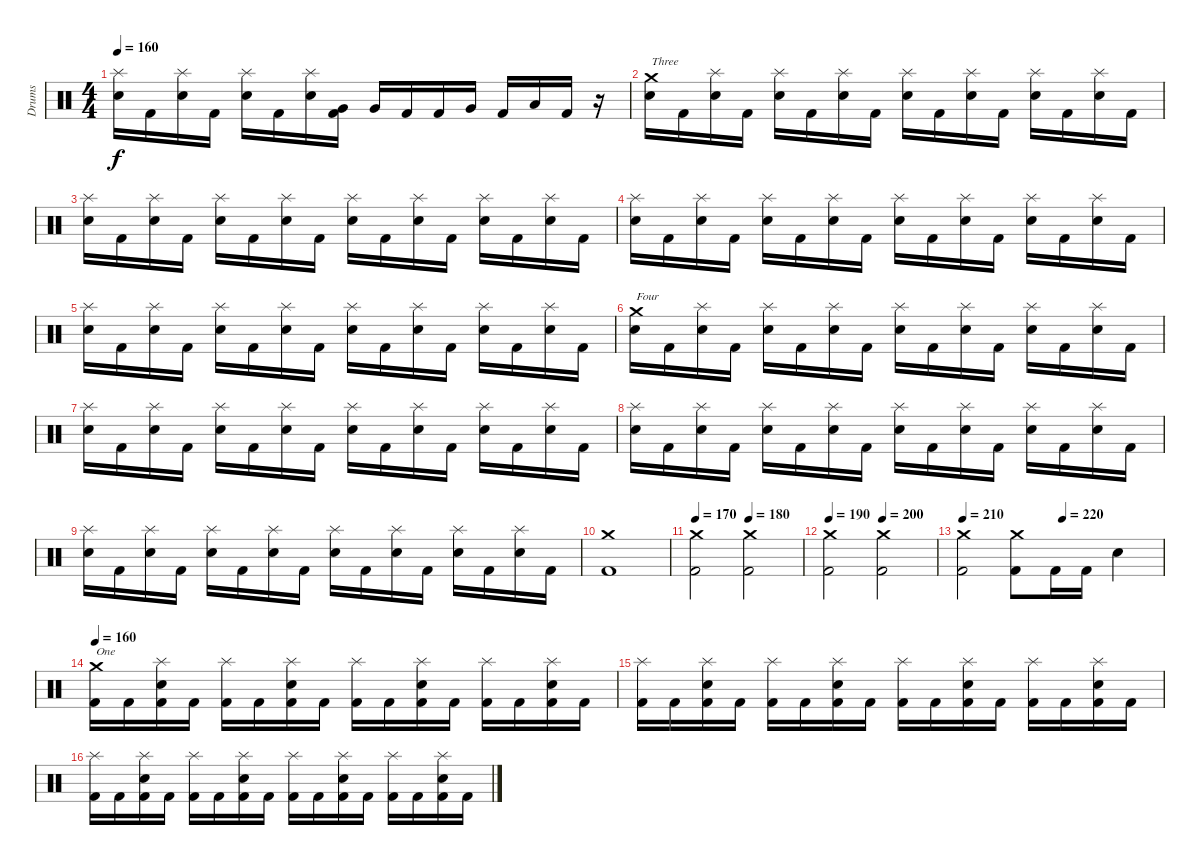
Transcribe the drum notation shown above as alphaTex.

\track ("Drums" "Drums") {instrument percussion}
\staff {score}
\articulation defaults
\ts (4 4)
\tempo 160
\clef neutral
\ks c
("Splash (hit)" "Snare (hit) 2").16{dy f} "Kick (hit) 2".16 ("Splash (hit)" "Snare (hit) 2").16 "Kick (hit) 2".16 ("Splash (hit)" "Snare (hit) 2").16 "Kick (hit) 2".16 ("Splash (hit)" "Snare (hit) 2").16 ("Very Low Tom (hit)" "Kick (hit) 2").16 "Very Low Tom (hit)".16 "Kick (hit) 2".16 "Kick (hit) 2".16 "Very Low Tom (hit)".16 "Kick (hit) 2".16 "Low Floor Tom (hit)".16 "Kick (hit) 2".16 r.16 |
("Crash medium (hit)" "Snare (hit) 2").16{txt "Three"} "Kick (hit) 2".16 ("Splash (hit)" "Snare (hit) 2").16 "Kick (hit) 2".16 ("Splash (hit)" "Snare (hit) 2").16 "Kick (hit) 2".16 ("Splash (hit)" "Snare (hit) 2").16 "Kick (hit) 2".16 ("Splash (hit)" "Snare (hit) 2").16 "Kick (hit) 2".16 ("Splash (hit)" "Snare (hit) 2").16 "Kick (hit) 2".16 ("Splash (hit)" "Snare (hit) 2").16 "Kick (hit) 2".16 ("Splash (hit)" "Snare (hit) 2").16 "Kick (hit) 2".16 |
("Splash (hit)" "Snare (hit) 2").16 "Kick (hit) 2".16 ("Splash (hit)" "Snare (hit) 2").16 "Kick (hit) 2".16 ("Splash (hit)" "Snare (hit) 2").16 "Kick (hit) 2".16 ("Splash (hit)" "Snare (hit) 2").16 "Kick (hit) 2".16 ("Splash (hit)" "Snare (hit) 2").16 "Kick (hit) 2".16 ("Splash (hit)" "Snare (hit) 2").16 "Kick (hit) 2".16 ("Splash (hit)" "Snare (hit) 2").16 "Kick (hit) 2".16 ("Splash (hit)" "Snare (hit) 2").16 "Kick (hit) 2".16 |
("Splash (hit)" "Snare (hit) 2").16 "Kick (hit) 2".16 ("Splash (hit)" "Snare (hit) 2").16 "Kick (hit) 2".16 ("Splash (hit)" "Snare (hit) 2").16 "Kick (hit) 2".16 ("Splash (hit)" "Snare (hit) 2").16 "Kick (hit) 2".16 ("Splash (hit)" "Snare (hit) 2").16 "Kick (hit) 2".16 ("Splash (hit)" "Snare (hit) 2").16 "Kick (hit) 2".16 ("Splash (hit)" "Snare (hit) 2").16 "Kick (hit) 2".16 ("Splash (hit)" "Snare (hit) 2").16 "Kick (hit) 2".16 |
("Splash (hit)" "Snare (hit) 2").16 "Kick (hit) 2".16 ("Splash (hit)" "Snare (hit) 2").16 "Kick (hit) 2".16 ("Splash (hit)" "Snare (hit) 2").16 "Kick (hit) 2".16 ("Splash (hit)" "Snare (hit) 2").16 "Kick (hit) 2".16 ("Splash (hit)" "Snare (hit) 2").16 "Kick (hit) 2".16 ("Splash (hit)" "Snare (hit) 2").16 "Kick (hit) 2".16 ("Splash (hit)" "Snare (hit) 2").16 "Kick (hit) 2".16 ("Splash (hit)" "Snare (hit) 2").16 "Kick (hit) 2".16 |
("Crash medium (hit)" "Snare (hit) 2").16{txt "Four"} "Kick (hit) 2".16 ("Splash (hit)" "Snare (hit) 2").16 "Kick (hit) 2".16 ("Splash (hit)" "Snare (hit) 2").16 "Kick (hit) 2".16 ("Splash (hit)" "Snare (hit) 2").16 "Kick (hit) 2".16 ("Splash (hit)" "Snare (hit) 2").16 "Kick (hit) 2".16 ("Splash (hit)" "Snare (hit) 2").16 "Kick (hit) 2".16 ("Splash (hit)" "Snare (hit) 2").16 "Kick (hit) 2".16 ("Splash (hit)" "Snare (hit) 2").16 "Kick (hit) 2".16 |
("Splash (hit)" "Snare (hit) 2").16 "Kick (hit) 2".16 ("Splash (hit)" "Snare (hit) 2").16 "Kick (hit) 2".16 ("Splash (hit)" "Snare (hit) 2").16 "Kick (hit) 2".16 ("Splash (hit)" "Snare (hit) 2").16 "Kick (hit) 2".16 ("Splash (hit)" "Snare (hit) 2").16 "Kick (hit) 2".16 ("Splash (hit)" "Snare (hit) 2").16 "Kick (hit) 2".16 ("Splash (hit)" "Snare (hit) 2").16 "Kick (hit) 2".16 ("Splash (hit)" "Snare (hit) 2").16 "Kick (hit) 2".16 |
("Splash (hit)" "Snare (hit) 2").16 "Kick (hit) 2".16 ("Splash (hit)" "Snare (hit) 2").16 "Kick (hit) 2".16 ("Splash (hit)" "Snare (hit) 2").16 "Kick (hit) 2".16 ("Splash (hit)" "Snare (hit) 2").16 "Kick (hit) 2".16 ("Splash (hit)" "Snare (hit) 2").16 "Kick (hit) 2".16 ("Splash (hit)" "Snare (hit) 2").16 "Kick (hit) 2".16 ("Splash (hit)" "Snare (hit) 2").16 "Kick (hit) 2".16 ("Splash (hit)" "Snare (hit) 2").16 "Kick (hit) 2".16 |
("Splash (hit)" "Snare (hit) 2").16 "Kick (hit) 2".16 ("Splash (hit)" "Snare (hit) 2").16 "Kick (hit) 2".16 ("Splash (hit)" "Snare (hit) 2").16 "Kick (hit) 2".16 ("Splash (hit)" "Snare (hit) 2").16 "Kick (hit) 2".16 ("Splash (hit)" "Snare (hit) 2").16 "Kick (hit) 2".16 ("Splash (hit)" "Snare (hit) 2").16 "Kick (hit) 2".16 ("Splash (hit)" "Snare (hit) 2").16 "Kick (hit) 2".16 ("Splash (hit)" "Snare (hit) 2").16 "Kick (hit) 2".16 |
("Crash medium (hit)" "Kick (hit) 2").1 |
\tempo 170
\tempo (180 0.5)
("Crash medium (hit)" "Kick (hit) 2").2 ("Crash medium (hit)" "Kick (hit) 2").2 |
\tempo 190
\tempo (200 0.5)
("Crash medium (hit)" "Kick (hit) 2").2 ("Crash medium (hit)" "Kick (hit) 2").2 |
\tempo 210
\tempo (220 0.5)
("Crash medium (hit)" "Kick (hit) 2").2 ("Crash medium (hit)" "Kick (hit) 2").8 "Kick (hit) 2".16 "Kick (hit) 2".16 "Snare (hit) 2".4 |
\tempo 160
("Crash medium (hit)" "Kick (hit) 2").16{txt "One"} "Kick (hit) 2".16 ("Splash (hit)" "Snare (hit) 2" "Kick (hit) 2").16 "Kick (hit) 2".16 ("Splash (hit)" "Kick (hit) 2").16 "Kick (hit) 2".16 ("Splash (hit)" "Snare (hit) 2" "Kick (hit) 2").16 "Kick (hit) 2".16 ("Splash (hit)" "Kick (hit) 2").16 "Kick (hit) 2".16 ("Splash (hit)" "Snare (hit) 2" "Kick (hit) 2").16 "Kick (hit) 2".16 ("Splash (hit)" "Kick (hit) 2").16 "Kick (hit) 2".16 ("Splash (hit)" "Snare (hit) 2" "Kick (hit) 2").16 "Kick (hit) 2".16 |
("Splash (hit)" "Kick (hit) 2").16 "Kick (hit) 2".16 ("Splash (hit)" "Snare (hit) 2" "Kick (hit) 2").16 "Kick (hit) 2".16 ("Splash (hit)" "Kick (hit) 2").16 "Kick (hit) 2".16 ("Splash (hit)" "Snare (hit) 2" "Kick (hit) 2").16 "Kick (hit) 2".16 ("Splash (hit)" "Kick (hit) 2").16 "Kick (hit) 2".16 ("Splash (hit)" "Snare (hit) 2" "Kick (hit) 2").16 "Kick (hit) 2".16 ("Splash (hit)" "Kick (hit) 2").16 "Kick (hit) 2".16 ("Splash (hit)" "Snare (hit) 2" "Kick (hit) 2").16 "Kick (hit) 2".16 |
("Splash (hit)" "Kick (hit) 2").16 "Kick (hit) 2".16 ("Splash (hit)" "Snare (hit) 2" "Kick (hit) 2").16 "Kick (hit) 2".16 ("Splash (hit)" "Kick (hit) 2").16 "Kick (hit) 2".16 ("Splash (hit)" "Snare (hit) 2" "Kick (hit) 2").16 "Kick (hit) 2".16 ("Splash (hit)" "Kick (hit) 2").16 "Kick (hit) 2".16 ("Splash (hit)" "Snare (hit) 2" "Kick (hit) 2").16 "Kick (hit) 2".16 ("Splash (hit)" "Kick (hit) 2").16 "Kick (hit) 2".16 ("Splash (hit)" "Snare (hit) 2" "Kick (hit) 2").16 "Kick (hit) 2".16
